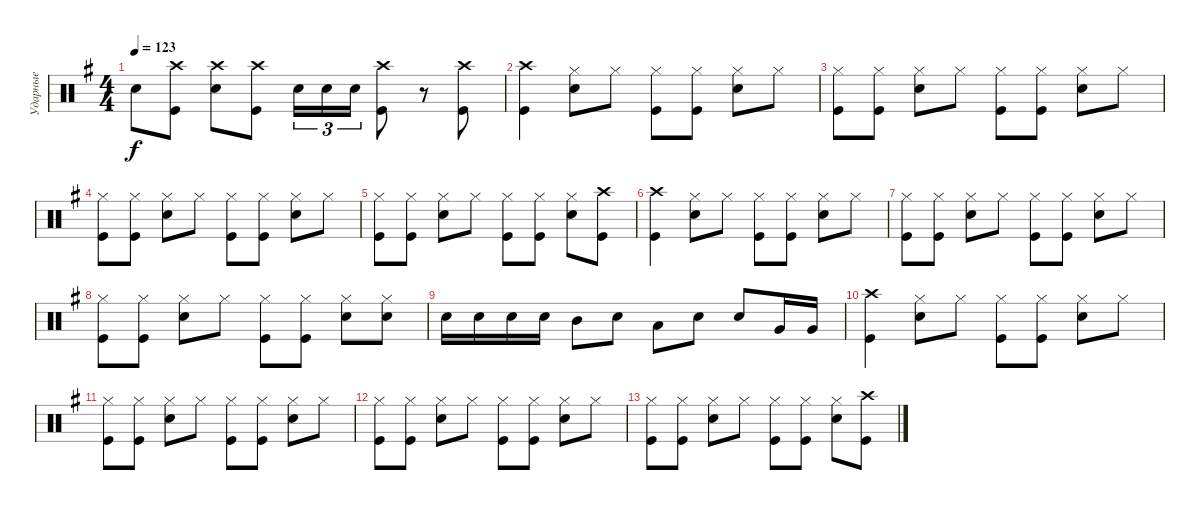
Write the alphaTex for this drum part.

\track ("Ударные" "Ударные") {instrument percussion}
\staff {score}
\articulation defaults
\ts (4 4)
\tempo 123
\clef neutral
\ks eminor "Snare (hit) 2".8{dy f}
("Kick (hit)" "Crash high (hit)").8 ("Snare (hit) 2" "Crash high (hit)").8 ("Crash high (hit)" "Kick (hit)").8 "Snare (hit) 2".16{tu (3 2)} "Snare (hit) 2".16{tu (3 2)} "Snare (hit) 2".16{tu (3 2)} ("Kick (hit)" "Crash high (hit)").8 r.8 ("Kick (hit)" "Crash high (hit)").8 |
("Crash high (hit)" "Kick (hit)").4 ("Snare (hit) 2" "Hi-Hat (closed)").8 "Hi-Hat (closed)".8 ("Hi-Hat (closed)" "Kick (hit)").8 ("Hi-Hat (closed)" "Kick (hit)").8 ("Hi-Hat (closed)" "Snare (hit) 2").8 "Hi-Hat (closed)".8 |
("Hi-Hat (closed)" "Kick (hit)").8 ("Hi-Hat (closed)" "Kick (hit)").8 ("Snare (hit) 2" "Hi-Hat (closed)").8 "Hi-Hat (closed)".8 ("Hi-Hat (closed)" "Kick (hit)").8 ("Hi-Hat (closed)" "Kick (hit)").8 ("Hi-Hat (closed)" "Snare (hit) 2").8 "Hi-Hat (closed)".8 |
("Hi-Hat (closed)" "Kick (hit)").8 ("Hi-Hat (closed)" "Kick (hit)").8 ("Snare (hit) 2" "Hi-Hat (closed)").8 "Hi-Hat (closed)".8 ("Hi-Hat (closed)" "Kick (hit)").8 ("Hi-Hat (closed)" "Kick (hit)").8 ("Hi-Hat (closed)" "Snare (hit) 2").8 "Hi-Hat (closed)".8 |
("Hi-Hat (closed)" "Kick (hit)").8 ("Hi-Hat (closed)" "Kick (hit)").8 ("Snare (hit) 2" "Hi-Hat (closed)").8 "Hi-Hat (closed)".8 ("Hi-Hat (closed)" "Kick (hit)").8 ("Hi-Hat (closed)" "Kick (hit)").8 ("Hi-Hat (closed)" "Snare (hit) 2").8 ("Kick (hit)" "Crash high (hit)").8 |
("Crash high (hit)" "Kick (hit)").4 ("Snare (hit) 2" "Hi-Hat (closed)").8 "Hi-Hat (closed)".8 ("Hi-Hat (closed)" "Kick (hit)").8 ("Hi-Hat (closed)" "Kick (hit)").8 ("Hi-Hat (closed)" "Snare (hit) 2").8 "Hi-Hat (closed)".8 |
("Hi-Hat (closed)" "Kick (hit)").8 ("Hi-Hat (closed)" "Kick (hit)").8 ("Snare (hit) 2" "Hi-Hat (closed)").8 "Hi-Hat (closed)".8 ("Hi-Hat (closed)" "Kick (hit)").8 ("Hi-Hat (closed)" "Kick (hit)").8 ("Hi-Hat (closed)" "Snare (hit) 2").8 "Hi-Hat (closed)".8 |
("Hi-Hat (closed)" "Kick (hit)").8 ("Hi-Hat (closed)" "Kick (hit)").8 ("Snare (hit) 2" "Hi-Hat (closed)").8 "Hi-Hat (closed)".8 ("Hi-Hat (closed)" "Kick (hit)").8 ("Hi-Hat (closed)" "Kick (hit)").8 ("Hi-Hat (closed)" "Snare (hit) 2").8 ("Snare (hit) 2" "Hi-Hat (closed)").8 |
"Snare (hit) 2".16 "Snare (hit) 2".16 "Snare (hit) 2".16 "Snare (hit) 2".16 "Mid Tom (hit)".8 "Snare (hit) 2".8 "Low Tom (hit)".8 "Snare (hit) 2".8 "Snare (hit) 2".8 "Very Low Tom (hit)".16 "Very Low Tom (hit)".16 |
("Crash high (hit)" "Kick (hit)").4{volume 0} ("Snare (hit) 2" "Hi-Hat (closed)").8 "Hi-Hat (closed)".8 ("Hi-Hat (closed)" "Kick (hit)").8 ("Hi-Hat (closed)" "Kick (hit)").8 ("Hi-Hat (closed)" "Snare (hit) 2").8 "Hi-Hat (closed)".8 |
("Hi-Hat (closed)" "Kick (hit)").8 ("Hi-Hat (closed)" "Kick (hit)").8 ("Snare (hit) 2" "Hi-Hat (closed)").8 "Hi-Hat (closed)".8 ("Hi-Hat (closed)" "Kick (hit)").8 ("Hi-Hat (closed)" "Kick (hit)").8 ("Hi-Hat (closed)" "Snare (hit) 2").8 "Hi-Hat (closed)".8 |
("Hi-Hat (closed)" "Kick (hit)").8 ("Hi-Hat (closed)" "Kick (hit)").8 ("Snare (hit) 2" "Hi-Hat (closed)").8 "Hi-Hat (closed)".8 ("Hi-Hat (closed)" "Kick (hit)").8 ("Hi-Hat (closed)" "Kick (hit)").8 ("Hi-Hat (closed)" "Snare (hit) 2").8 "Hi-Hat (closed)".8 |
("Hi-Hat (closed)" "Kick (hit)").8 ("Hi-Hat (closed)" "Kick (hit)").8 ("Snare (hit) 2" "Hi-Hat (closed)").8 "Hi-Hat (closed)".8 ("Hi-Hat (closed)" "Kick (hit)").8 ("Hi-Hat (closed)" "Kick (hit)").8 ("Hi-Hat (closed)" "Snare (hit) 2").8 ("Kick (hit)" "Crash high (hit)").8
